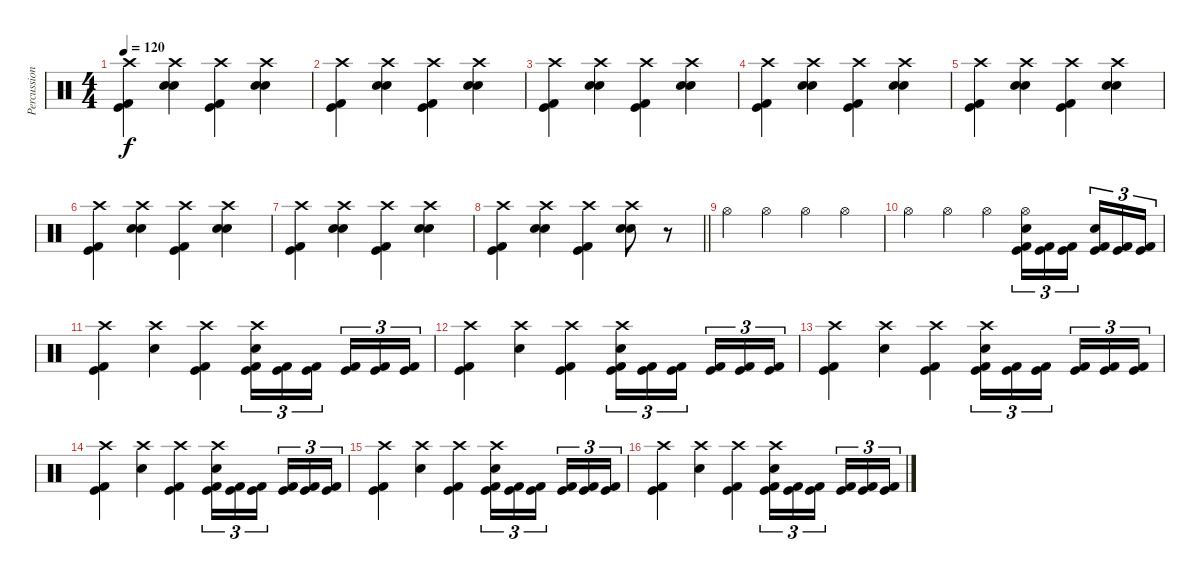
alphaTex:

\track ("Percussion" "Percussion") {instrument percussion}
\staff {score}
\articulation defaults
\ts (4 4)
\tempo 120
\clef neutral
\ks c
("Crash high (hit)" "Kick (hit) 2" "Kick (hit)").4{dy f} ("Crash high (hit)" "Electric Snare (hit)" "Electric Snare (hit)").4 ("Crash high (hit)" "Kick (hit) 2" "Kick (hit)").4 ("Crash high (hit)" "Electric Snare (hit)" "Electric Snare (hit)").4 |
("Crash high (hit)" "Kick (hit) 2" "Kick (hit)").4 ("Crash high (hit)" "Electric Snare (hit)" "Electric Snare (hit)").4 ("Crash high (hit)" "Kick (hit) 2" "Kick (hit)").4 ("Crash high (hit)" "Electric Snare (hit)" "Electric Snare (hit)").4 |
("Crash high (hit)" "Kick (hit) 2" "Kick (hit)").4 ("Crash high (hit)" "Electric Snare (hit)" "Electric Snare (hit)").4 ("Crash high (hit)" "Kick (hit) 2" "Kick (hit)").4 ("Crash high (hit)" "Electric Snare (hit)" "Electric Snare (hit)").4 |
("Crash high (hit)" "Kick (hit) 2" "Kick (hit)").4 ("Crash high (hit)" "Electric Snare (hit)" "Electric Snare (hit)").4 ("Crash high (hit)" "Kick (hit) 2" "Kick (hit)").4 ("Crash high (hit)" "Electric Snare (hit)" "Electric Snare (hit)").4 |
("Crash high (hit)" "Kick (hit) 2" "Kick (hit)").4 ("Crash high (hit)" "Electric Snare (hit)" "Electric Snare (hit)").4 ("Crash high (hit)" "Kick (hit) 2" "Kick (hit)").4 ("Crash high (hit)" "Electric Snare (hit)" "Electric Snare (hit)").4 |
("Crash high (hit)" "Kick (hit) 2" "Kick (hit)").4 ("Crash high (hit)" "Electric Snare (hit)" "Electric Snare (hit)").4 ("Crash high (hit)" "Kick (hit) 2" "Kick (hit)").4 ("Crash high (hit)" "Electric Snare (hit)" "Electric Snare (hit)").4 |
("Crash high (hit)" "Kick (hit) 2" "Kick (hit)").4 ("Crash high (hit)" "Electric Snare (hit)" "Electric Snare (hit)").4 ("Crash high (hit)" "Kick (hit) 2" "Kick (hit)").4 ("Crash high (hit)" "Electric Snare (hit)" "Electric Snare (hit)").4 |
\barLineRight lightlight
("Crash high (hit)" "Kick (hit) 2" "Kick (hit)").4 ("Crash high (hit)" "Electric Snare (hit)" "Electric Snare (hit)").4 ("Crash high (hit)" "Kick (hit) 2" "Kick (hit)").4 ("Crash high (hit)" "Electric Snare (hit)" "Electric Snare (hit)").8 r.8{volume 0} |
"Hi-Hat (open)".4{volume 13} "Hi-Hat (open)".4 "Hi-Hat (open)".4 "Hi-Hat (open)".4 |
"Hi-Hat (open)".4 "Hi-Hat (open)".4 "Hi-Hat (open)".4 ("Electric Snare (hit)" "Hi-Hat (open)" "Kick (hit)" "Kick (hit) 2").16{tu (3 2)} ("Kick (hit)" "Kick (hit) 2").16{tu (3 2)} ("Kick (hit)" "Kick (hit) 2").16{tu (3 2) beam splitsecondary} ("Electric Snare (hit)" "Kick (hit)" "Kick (hit) 2").16{tu (3 2)} ("Kick (hit)" "Kick (hit) 2").16{tu (3 2)} ("Kick (hit)" "Kick (hit) 2").16{tu (3 2)} |
("Crash high (hit)" "Kick (hit) 2" "Kick (hit)").4 ("Crash high (hit)" "Electric Snare (hit)").4 ("Crash high (hit)" "Kick (hit) 2" "Kick (hit)").4 ("Crash high (hit)" "Electric Snare (hit)" "Kick (hit) 2" "Kick (hit)").16{tu (3 2)} ("Kick (hit) 2" "Kick (hit)").16{tu (3 2)} ("Kick (hit) 2" "Kick (hit)").16{tu (3 2) beam splitsecondary} ("Kick (hit) 2" "Kick (hit)").16{tu (3 2)} ("Kick (hit) 2" "Kick (hit)").16{tu (3 2)} ("Kick (hit) 2" "Kick (hit)").16{tu (3 2)} |
("Crash high (hit)" "Kick (hit) 2" "Kick (hit)").4 ("Crash high (hit)" "Electric Snare (hit)").4 ("Crash high (hit)" "Kick (hit) 2" "Kick (hit)").4 ("Crash high (hit)" "Electric Snare (hit)" "Kick (hit) 2" "Kick (hit)").16{tu (3 2)} ("Kick (hit) 2" "Kick (hit)").16{tu (3 2)} ("Kick (hit) 2" "Kick (hit)").16{tu (3 2) beam splitsecondary} ("Kick (hit) 2" "Kick (hit)").16{tu (3 2)} ("Kick (hit) 2" "Kick (hit)").16{tu (3 2)} ("Kick (hit) 2" "Kick (hit)").16{tu (3 2)} |
("Crash high (hit)" "Kick (hit) 2" "Kick (hit)").4 ("Crash high (hit)" "Electric Snare (hit)").4 ("Crash high (hit)" "Kick (hit) 2" "Kick (hit)").4 ("Crash high (hit)" "Electric Snare (hit)" "Kick (hit) 2" "Kick (hit)").16{tu (3 2)} ("Kick (hit) 2" "Kick (hit)").16{tu (3 2)} ("Kick (hit) 2" "Kick (hit)").16{tu (3 2) beam splitsecondary} ("Kick (hit) 2" "Kick (hit)").16{tu (3 2)} ("Kick (hit) 2" "Kick (hit)").16{tu (3 2)} ("Kick (hit) 2" "Kick (hit)").16{tu (3 2)} |
("Crash high (hit)" "Kick (hit) 2" "Kick (hit)").4 ("Crash high (hit)" "Electric Snare (hit)").4 ("Crash high (hit)" "Kick (hit) 2" "Kick (hit)").4 ("Crash high (hit)" "Electric Snare (hit)" "Kick (hit) 2" "Kick (hit)").16{tu (3 2)} ("Kick (hit) 2" "Kick (hit)").16{tu (3 2)} ("Kick (hit) 2" "Kick (hit)").16{tu (3 2) beam splitsecondary} ("Kick (hit) 2" "Kick (hit)").16{tu (3 2)} ("Kick (hit) 2" "Kick (hit)").16{tu (3 2)} ("Kick (hit) 2" "Kick (hit)").16{tu (3 2)} |
("Crash high (hit)" "Kick (hit) 2" "Kick (hit)").4 ("Crash high (hit)" "Electric Snare (hit)").4 ("Crash high (hit)" "Kick (hit) 2" "Kick (hit)").4 ("Crash high (hit)" "Electric Snare (hit)" "Kick (hit) 2" "Kick (hit)").16{tu (3 2)} ("Kick (hit) 2" "Kick (hit)").16{tu (3 2)} ("Kick (hit) 2" "Kick (hit)").16{tu (3 2) beam splitsecondary} ("Kick (hit) 2" "Kick (hit)").16{tu (3 2)} ("Kick (hit) 2" "Kick (hit)").16{tu (3 2)} ("Kick (hit) 2" "Kick (hit)").16{tu (3 2)} |
("Crash high (hit)" "Kick (hit) 2" "Kick (hit)").4 ("Crash high (hit)" "Electric Snare (hit)").4 ("Crash high (hit)" "Kick (hit) 2" "Kick (hit)").4 ("Crash high (hit)" "Electric Snare (hit)" "Kick (hit) 2" "Kick (hit)").16{tu (3 2)} ("Kick (hit) 2" "Kick (hit)").16{tu (3 2)} ("Kick (hit) 2" "Kick (hit)").16{tu (3 2) beam splitsecondary} ("Kick (hit) 2" "Kick (hit)").16{tu (3 2)} ("Kick (hit) 2" "Kick (hit)").16{tu (3 2)} ("Kick (hit) 2" "Kick (hit)").16{tu (3 2)}
